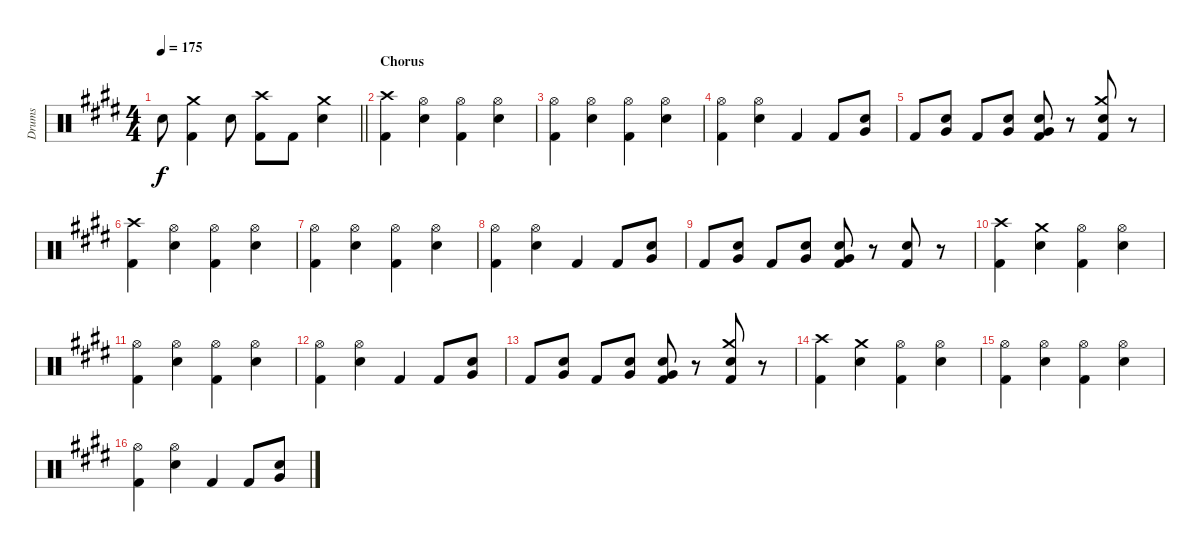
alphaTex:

\track ("Drums" "Drums") {instrument percussion}
\staff {score}
\articulation defaults
\ts (4 4)
\tempo 175
\clef neutral
\barLineRight lightlight
\ks e "Electric Snare (hit)".8{dy f}
("Crash medium (hit)" "Kick (hit) 2").4 "Electric Snare (hit)".8 ("Crash high (hit)" "Kick (hit) 2").8 "Kick (hit) 2".8 ("Crash medium (hit)" "Electric Snare (hit)").4 |
\section ("" "Chorus")
("Crash high (hit)" "Kick (hit) 2").4 ("Hi-Hat (open)" "Electric Snare (hit)").4 ("Hi-Hat (open)" "Kick (hit) 2").4 ("Hi-Hat (open)" "Electric Snare (hit)").4 |
("Hi-Hat (open)" "Kick (hit) 2").4 ("Hi-Hat (open)" "Electric Snare (hit)").4 ("Hi-Hat (open)" "Kick (hit) 2").4 ("Hi-Hat (open)" "Electric Snare (hit)").4 |
("Hi-Hat (open)" "Kick (hit) 2").4 ("Hi-Hat (open)" "Electric Snare (hit)").4 "Kick (hit) 2".4 "Kick (hit) 2".8 ("Electric Snare (hit)" "Very Low Tom (hit)").8 |
"Kick (hit) 2".8 ("Electric Snare (hit)" "Very Low Tom (hit)").8 "Kick (hit) 2".8 ("Electric Snare (hit)" "Very Low Tom (hit)").8 ("Electric Snare (hit)" "Very Low Tom (hit)" "Kick (hit) 2").8 r.8 ("Crash medium (hit)" "Electric Snare (hit)" "Kick (hit) 2").8 r.8 |
("Crash high (hit)" "Kick (hit) 2").4 ("Hi-Hat (open)" "Electric Snare (hit)").4 ("Hi-Hat (open)" "Kick (hit) 2").4 ("Hi-Hat (open)" "Electric Snare (hit)").4 |
("Hi-Hat (open)" "Kick (hit) 2").4 ("Hi-Hat (open)" "Electric Snare (hit)").4 ("Hi-Hat (open)" "Kick (hit) 2").4 ("Hi-Hat (open)" "Electric Snare (hit)").4 |
("Hi-Hat (open)" "Kick (hit) 2").4 ("Hi-Hat (open)" "Electric Snare (hit)").4 "Kick (hit) 2".4 "Kick (hit) 2".8 ("Electric Snare (hit)" "Very Low Tom (hit)").8 |
"Kick (hit) 2".8 ("Electric Snare (hit)" "Very Low Tom (hit)").8 "Kick (hit) 2".8 ("Electric Snare (hit)" "Very Low Tom (hit)").8 ("Electric Snare (hit)" "Very Low Tom (hit)" "Kick (hit) 2").8 r.8 ("Electric Snare (hit)" "Kick (hit) 2").8 r.8 |
("Crash high (hit)" "Kick (hit) 2").4 ("Crash medium (hit)" "Electric Snare (hit)").4 ("Hi-Hat (open)" "Kick (hit) 2").4 ("Hi-Hat (open)" "Electric Snare (hit)").4 |
("Hi-Hat (open)" "Kick (hit) 2").4 ("Hi-Hat (open)" "Electric Snare (hit)").4 ("Hi-Hat (open)" "Kick (hit) 2").4 ("Hi-Hat (open)" "Electric Snare (hit)").4 |
("Hi-Hat (open)" "Kick (hit) 2").4 ("Hi-Hat (open)" "Electric Snare (hit)").4 "Kick (hit) 2".4 "Kick (hit) 2".8 ("Electric Snare (hit)" "Very Low Tom (hit)").8 |
"Kick (hit) 2".8 ("Electric Snare (hit)" "Very Low Tom (hit)").8 "Kick (hit) 2".8 ("Electric Snare (hit)" "Very Low Tom (hit)").8 ("Electric Snare (hit)" "Very Low Tom (hit)" "Kick (hit) 2").8 r.8 ("Crash medium (hit)" "Electric Snare (hit)" "Kick (hit) 2").8 r.8 |
("Crash high (hit)" "Kick (hit) 2").4 ("Crash medium (hit)" "Electric Snare (hit)").4 ("Hi-Hat (open)" "Kick (hit) 2").4 ("Hi-Hat (open)" "Electric Snare (hit)").4 |
("Hi-Hat (open)" "Kick (hit) 2").4 ("Hi-Hat (open)" "Electric Snare (hit)").4 ("Hi-Hat (open)" "Kick (hit) 2").4 ("Hi-Hat (open)" "Electric Snare (hit)").4 |
("Hi-Hat (open)" "Kick (hit) 2").4 ("Hi-Hat (open)" "Electric Snare (hit)").4 "Kick (hit) 2".4 "Kick (hit) 2".8 ("Electric Snare (hit)" "Very Low Tom (hit)").8
